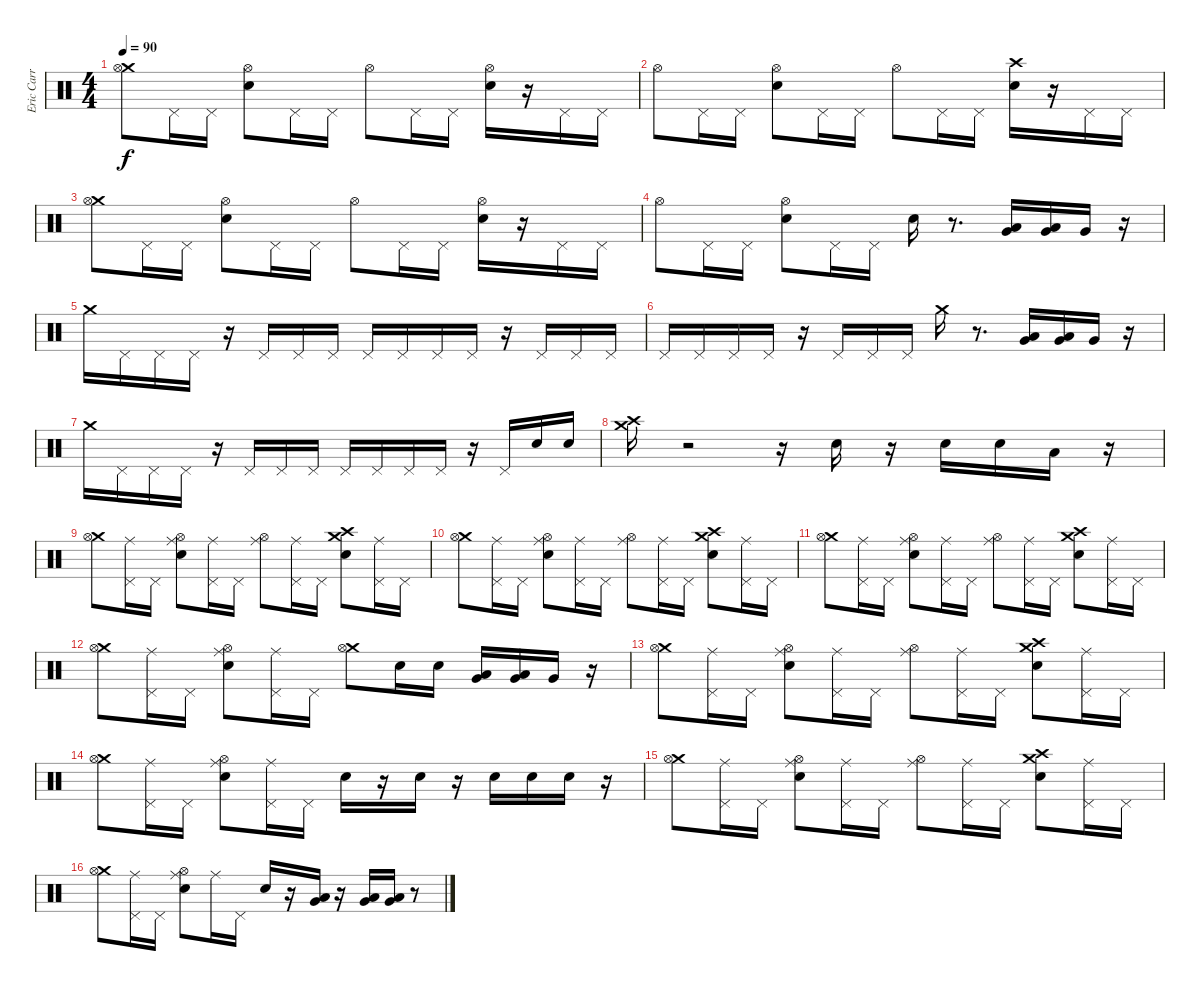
\track ("Eric Carr" "Eric Carr") {instrument percussion}
\staff {score}
\articulation defaults
\ts (4 4)
\tempo 90
\clef neutral
\ks c
("Crash medium (hit)" "Hi-Hat (open)").8{dy f} "Pedal Hi-Hat (hit)".16 "Pedal Hi-Hat (hit)".16 ("Hi-Hat (open)" "Electric Snare (hit)").8 "Pedal Hi-Hat (hit)".16 "Pedal Hi-Hat (hit)".16 "Hi-Hat (open)".8 "Pedal Hi-Hat (hit)".16 "Pedal Hi-Hat (hit)".16 ("Hi-Hat (open)" "Electric Snare (hit)").16 r.16 "Pedal Hi-Hat (hit)".16 "Pedal Hi-Hat (hit)".16 |
"Hi-Hat (open)".8 "Pedal Hi-Hat (hit)".16 "Pedal Hi-Hat (hit)".16 ("Hi-Hat (open)" "Electric Snare (hit)").8 "Pedal Hi-Hat (hit)".16 "Pedal Hi-Hat (hit)".16 "Hi-Hat (open)".8 "Pedal Hi-Hat (hit)".16 "Pedal Hi-Hat (hit)".16 ("Crash high (hit)" "Electric Snare (hit)").16 r.16 "Pedal Hi-Hat (hit)".16 "Pedal Hi-Hat (hit)".16 |
("Crash medium (hit)" "Hi-Hat (open)").8 "Pedal Hi-Hat (hit)".16 "Pedal Hi-Hat (hit)".16 ("Hi-Hat (open)" "Electric Snare (hit)").8 "Pedal Hi-Hat (hit)".16 "Pedal Hi-Hat (hit)".16 "Hi-Hat (open)".8 "Pedal Hi-Hat (hit)".16 "Pedal Hi-Hat (hit)".16 ("Hi-Hat (open)" "Electric Snare (hit)").16 r.16 "Pedal Hi-Hat (hit)".16 "Pedal Hi-Hat (hit)".16 |
"Hi-Hat (open)".8 "Pedal Hi-Hat (hit)".16 "Pedal Hi-Hat (hit)".16 ("Hi-Hat (open)" "Electric Snare (hit)").8 "Pedal Hi-Hat (hit)".16 "Pedal Hi-Hat (hit)".16 "Electric Snare (hit)".16 r.8{d} ("Low Tom (hit)" "Very Low Tom (hit)").16 ("Low Tom (hit)" "Very Low Tom (hit)").16 "Very Low Tom (hit)".16 r.16 |
"Crash medium (hit)".16 "Pedal Hi-Hat (hit)".16 "Pedal Hi-Hat (hit)".16 "Pedal Hi-Hat (hit)".16 r.16 "Pedal Hi-Hat (hit)".16 "Pedal Hi-Hat (hit)".16 "Pedal Hi-Hat (hit)".16 "Pedal Hi-Hat (hit)".16 "Pedal Hi-Hat (hit)".16 "Pedal Hi-Hat (hit)".16 "Pedal Hi-Hat (hit)".16 r.16 "Pedal Hi-Hat (hit)".16 "Pedal Hi-Hat (hit)".16 "Pedal Hi-Hat (hit)".16 |
"Pedal Hi-Hat (hit)".16 "Pedal Hi-Hat (hit)".16 "Pedal Hi-Hat (hit)".16 "Pedal Hi-Hat (hit)".16 r.16 "Pedal Hi-Hat (hit)".16 "Pedal Hi-Hat (hit)".16 "Pedal Hi-Hat (hit)".16 "Crash medium (hit)".16 r.8{d} ("Low Tom (hit)" "Very Low Tom (hit)").16 ("Low Tom (hit)" "Very Low Tom (hit)").16 "Very Low Tom (hit)".16 r.16 |
"Crash medium (hit)".16 "Pedal Hi-Hat (hit)".16 "Pedal Hi-Hat (hit)".16 "Pedal Hi-Hat (hit)".16 r.16 "Pedal Hi-Hat (hit)".16 "Pedal Hi-Hat (hit)".16 "Pedal Hi-Hat (hit)".16 "Pedal Hi-Hat (hit)".16 "Pedal Hi-Hat (hit)".16 "Pedal Hi-Hat (hit)".16 "Pedal Hi-Hat (hit)".16 r.16 "Pedal Hi-Hat (hit)".16 "Electric Snare (hit)".16 "Electric Snare (hit)".16 |
("Crash medium (hit)" "Crash high (hit)").16 r.2 r.16 "Electric Snare (hit)".16 r.16 "Electric Snare (hit)".16 "Electric Snare (hit)".16 "Low Floor Tom (hit)".16 r.16 |
("Crash medium (hit)" "Hi-Hat (open)").8 ("Ride (middle)" "Pedal Hi-Hat (hit)").16 "Pedal Hi-Hat (hit)".16 ("Ride (middle)" "Hi-Hat (open)" "Electric Snare (hit)").8 ("Ride (middle)" "Pedal Hi-Hat (hit)").16 "Pedal Hi-Hat (hit)".16 ("Ride (middle)" "Hi-Hat (open)").8 ("Ride (middle)" "Pedal Hi-Hat (hit)").16 "Pedal Hi-Hat (hit)".16 ("Crash medium (hit)" "Crash high (hit)" "Electric Snare (hit)").8 ("Ride (middle)" "Pedal Hi-Hat (hit)").16 "Pedal Hi-Hat (hit)".16 |
("Crash medium (hit)" "Hi-Hat (open)").8 ("Ride (middle)" "Pedal Hi-Hat (hit)").16 "Pedal Hi-Hat (hit)".16 ("Ride (middle)" "Hi-Hat (open)" "Electric Snare (hit)").8 ("Ride (middle)" "Pedal Hi-Hat (hit)").16 "Pedal Hi-Hat (hit)".16 ("Ride (middle)" "Hi-Hat (open)").8 ("Ride (middle)" "Pedal Hi-Hat (hit)").16 "Pedal Hi-Hat (hit)".16 ("Crash medium (hit)" "Crash high (hit)" "Electric Snare (hit)").8 ("Ride (middle)" "Pedal Hi-Hat (hit)").16 "Pedal Hi-Hat (hit)".16 |
("Crash medium (hit)" "Hi-Hat (open)").8 ("Ride (middle)" "Pedal Hi-Hat (hit)").16 "Pedal Hi-Hat (hit)".16 ("Ride (middle)" "Hi-Hat (open)" "Electric Snare (hit)").8 ("Ride (middle)" "Pedal Hi-Hat (hit)").16 "Pedal Hi-Hat (hit)".16 ("Ride (middle)" "Hi-Hat (open)").8 ("Ride (middle)" "Pedal Hi-Hat (hit)").16 "Pedal Hi-Hat (hit)".16 ("Crash medium (hit)" "Crash high (hit)" "Electric Snare (hit)").8 ("Ride (middle)" "Pedal Hi-Hat (hit)").16 "Pedal Hi-Hat (hit)".16 |
("Crash medium (hit)" "Hi-Hat (open)").8 ("Ride (middle)" "Pedal Hi-Hat (hit)").16 "Pedal Hi-Hat (hit)".16 ("Ride (middle)" "Hi-Hat (open)" "Electric Snare (hit)").8 ("Ride (middle)" "Pedal Hi-Hat (hit)").16 "Pedal Hi-Hat (hit)".16 ("Crash medium (hit)" "Hi-Hat (open)").8 "Electric Snare (hit)".16 "Electric Snare (hit)".16 ("Low Tom (hit)" "Very Low Tom (hit)").16 ("Low Tom (hit)" "Very Low Tom (hit)").16 "Very Low Tom (hit)".16 r.16 |
("Crash medium (hit)" "Hi-Hat (open)").8 ("Ride (middle)" "Pedal Hi-Hat (hit)").16 "Pedal Hi-Hat (hit)".16 ("Ride (middle)" "Hi-Hat (open)" "Electric Snare (hit)").8 ("Ride (middle)" "Pedal Hi-Hat (hit)").16 "Pedal Hi-Hat (hit)".16 ("Ride (middle)" "Hi-Hat (open)").8 ("Ride (middle)" "Pedal Hi-Hat (hit)").16 "Pedal Hi-Hat (hit)".16 ("Crash medium (hit)" "Crash high (hit)" "Electric Snare (hit)").8 ("Ride (middle)" "Pedal Hi-Hat (hit)").16 "Pedal Hi-Hat (hit)".16 |
("Crash medium (hit)" "Hi-Hat (open)").8 ("Ride (middle)" "Pedal Hi-Hat (hit)").16 "Pedal Hi-Hat (hit)".16 ("Ride (middle)" "Hi-Hat (open)" "Electric Snare (hit)").8 ("Ride (middle)" "Pedal Hi-Hat (hit)").16 "Pedal Hi-Hat (hit)".16 "Electric Snare (hit)".16 r.16 "Electric Snare (hit)".16 r.16 "Electric Snare (hit)".16 "Electric Snare (hit)".16 "Electric Snare (hit)".16 r.16 |
("Crash medium (hit)" "Hi-Hat (open)").8 ("Ride (middle)" "Pedal Hi-Hat (hit)").16 "Pedal Hi-Hat (hit)".16 ("Ride (middle)" "Hi-Hat (open)" "Electric Snare (hit)").8 ("Ride (middle)" "Pedal Hi-Hat (hit)").16 "Pedal Hi-Hat (hit)".16 ("Ride (middle)" "Hi-Hat (open)").8 ("Ride (middle)" "Pedal Hi-Hat (hit)").16 "Pedal Hi-Hat (hit)".16 ("Crash medium (hit)" "Crash high (hit)" "Electric Snare (hit)").8 ("Ride (middle)" "Pedal Hi-Hat (hit)").16 "Pedal Hi-Hat (hit)".16 |
("Crash medium (hit)" "Hi-Hat (open)").8 ("Ride (middle)" "Pedal Hi-Hat (hit)").16 "Pedal Hi-Hat (hit)".16 ("Ride (middle)" "Hi-Hat (open)" "Electric Snare (hit)").8 "Ride (middle)".16 "Pedal Hi-Hat (hit)".16 "Electric Snare (hit)".16 r.16 ("Low Tom (hit)" "Very Low Tom (hit)").16 r.16 ("Low Tom (hit)" "Very Low Tom (hit)").16 ("Low Tom (hit)" "Very Low Tom (hit)").16 r.8
